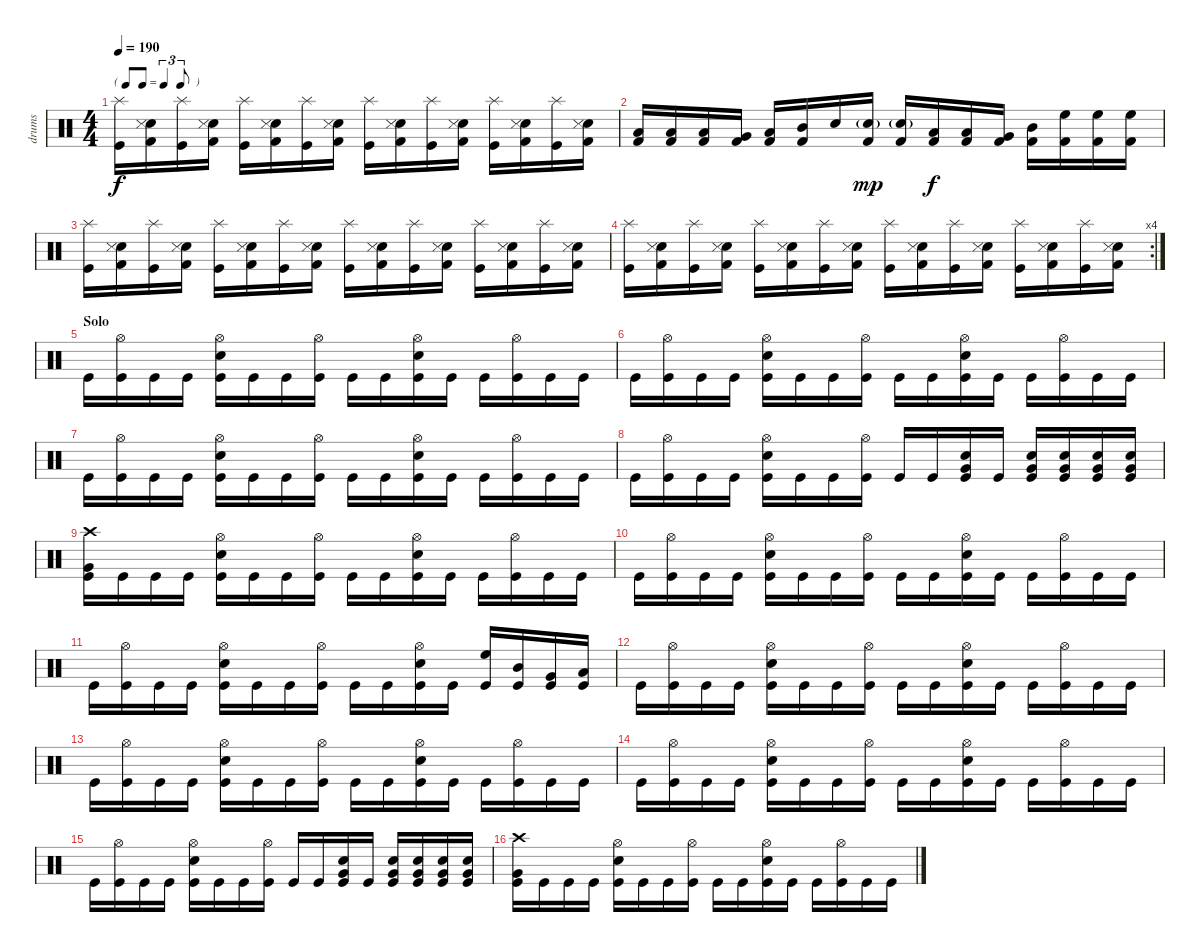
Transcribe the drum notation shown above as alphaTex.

\track ("drums" "drums") {instrument percussion}
\staff {score}
\articulation defaults
\ts (4 4)
\tf triplet8th
\tempo 190
\clef neutral
\ks c
("Kick (hit)" "Splash (hit)").16{dy f} ("Kick (hit) 2" "Electric Snare (hit)" "Snare (side stick) 3").16 ("Kick (hit)" "Splash (hit)").16 ("Kick (hit) 2" "Electric Snare (hit)" "Snare (side stick) 3").16 ("Kick (hit)" "Splash (hit)").16 ("Kick (hit) 2" "Electric Snare (hit)" "Snare (side stick) 3").16 ("Kick (hit)" "Splash (hit)").16 ("Kick (hit) 2" "Electric Snare (hit)" "Snare (side stick) 3").16 ("Kick (hit)" "Splash (hit)").16 ("Kick (hit) 2" "Electric Snare (hit)" "Snare (side stick) 3").16 ("Kick (hit)" "Splash (hit)").16 ("Kick (hit) 2" "Electric Snare (hit)" "Snare (side stick) 3").16 ("Kick (hit)" "Splash (hit)").16 ("Kick (hit) 2" "Electric Snare (hit)" "Snare (side stick) 3").16 ("Kick (hit)" "Splash (hit)").16 ("Kick (hit) 2" "Electric Snare (hit)" "Snare (side stick) 3").16 |
("Low Floor Tom (hit)" "Kick (hit) 2").16 ("Low Floor Tom (hit)" "Kick (hit) 2").16 ("Low Floor Tom (hit)" "Kick (hit) 2").16 ("Very Low Tom (hit)" "Kick (hit) 2").16 ("Low Tom (hit)" "Kick (hit) 2").16 ("Mid Tom (hit)" "Kick (hit) 2").16 "Electric Snare (hit)".16 ("Snare (hit) 2"{g} "Kick (hit) 2").16{dy mp} ("Snare (hit) 2"{g} "Kick (hit) 2").16 ("Low Floor Tom (hit)" "Kick (hit) 2").16{dy f} ("Low Tom (hit)" "Kick (hit) 2").16 ("Very Low Tom (hit)" "Kick (hit) 2").16 ("Mid Tom (hit)" "Kick (hit) 2").16 ("High Floor Tom (hit)" "Kick (hit) 2").16 ("High Floor Tom (hit)" "Kick (hit) 2").16 ("High Floor Tom (hit)" "Kick (hit) 2").16 |
("Kick (hit)" "Splash (hit)").16 ("Kick (hit) 2" "Electric Snare (hit)" "Snare (side stick) 3").16 ("Kick (hit)" "Splash (hit)").16 ("Kick (hit) 2" "Electric Snare (hit)" "Snare (side stick) 3").16 ("Kick (hit)" "Splash (hit)").16 ("Kick (hit) 2" "Electric Snare (hit)" "Snare (side stick) 3").16 ("Kick (hit)" "Splash (hit)").16 ("Kick (hit) 2" "Electric Snare (hit)" "Snare (side stick) 3").16 ("Kick (hit)" "Splash (hit)").16 ("Kick (hit) 2" "Electric Snare (hit)" "Snare (side stick) 3").16 ("Kick (hit)" "Splash (hit)").16 ("Kick (hit) 2" "Electric Snare (hit)" "Snare (side stick) 3").16 ("Kick (hit)" "Splash (hit)").16 ("Kick (hit) 2" "Electric Snare (hit)" "Snare (side stick) 3").16 ("Kick (hit)" "Splash (hit)").16 ("Kick (hit) 2" "Electric Snare (hit)" "Snare (side stick) 3").16 |
\rc 4
("Kick (hit)" "Splash (hit)").16 ("Kick (hit) 2" "Electric Snare (hit)" "Snare (side stick) 3").16 ("Kick (hit)" "Splash (hit)").16 ("Kick (hit) 2" "Electric Snare (hit)" "Snare (side stick) 3").16 ("Kick (hit)" "Splash (hit)").16 ("Kick (hit) 2" "Electric Snare (hit)" "Snare (side stick) 3").16 ("Kick (hit)" "Splash (hit)").16 ("Kick (hit) 2" "Electric Snare (hit)" "Snare (side stick) 3").16 ("Kick (hit)" "Splash (hit)").16 ("Kick (hit) 2" "Electric Snare (hit)" "Snare (side stick) 3").16 ("Kick (hit)" "Splash (hit)").16 ("Kick (hit) 2" "Electric Snare (hit)" "Snare (side stick) 3").16 ("Kick (hit)" "Splash (hit)").16 ("Kick (hit) 2" "Electric Snare (hit)" "Snare (side stick) 3").16 ("Kick (hit)" "Splash (hit)").16 ("Kick (hit) 2" "Electric Snare (hit)" "Snare (side stick) 3").16 |
\section ("" "Solo")
"Kick (hit)".16 ("Kick (hit)" "Hi-Hat (open)").16 "Kick (hit)".16 "Kick (hit)".16 ("Kick (hit)" "Electric Snare (hit)" "Hi-Hat (open)").16 "Kick (hit)".16 "Kick (hit)".16 ("Kick (hit)" "Hi-Hat (open)").16 "Kick (hit)".16 "Kick (hit)".16 ("Kick (hit)" "Electric Snare (hit)" "Hi-Hat (open)").16 "Kick (hit)".16 "Kick (hit)".16 ("Kick (hit)" "Hi-Hat (open)").16 "Kick (hit)".16 "Kick (hit)".16 |
"Kick (hit)".16 ("Kick (hit)" "Hi-Hat (open)").16 "Kick (hit)".16 "Kick (hit)".16 ("Kick (hit)" "Electric Snare (hit)" "Hi-Hat (open)").16 "Kick (hit)".16 "Kick (hit)".16 ("Kick (hit)" "Hi-Hat (open)").16 "Kick (hit)".16 "Kick (hit)".16 ("Kick (hit)" "Electric Snare (hit)" "Hi-Hat (open)").16 "Kick (hit)".16 "Kick (hit)".16 ("Kick (hit)" "Hi-Hat (open)").16 "Kick (hit)".16 "Kick (hit)".16 |
"Kick (hit)".16 ("Kick (hit)" "Hi-Hat (open)").16 "Kick (hit)".16 "Kick (hit)".16 ("Kick (hit)" "Electric Snare (hit)" "Hi-Hat (open)").16 "Kick (hit)".16 "Kick (hit)".16 ("Kick (hit)" "Hi-Hat (open)").16 "Kick (hit)".16 "Kick (hit)".16 ("Kick (hit)" "Electric Snare (hit)" "Hi-Hat (open)").16 "Kick (hit)".16 "Kick (hit)".16 ("Kick (hit)" "Hi-Hat (open)").16 "Kick (hit)".16 "Kick (hit)".16 |
"Kick (hit)".16 ("Kick (hit)" "Hi-Hat (open)").16 "Kick (hit)".16 "Kick (hit)".16 ("Kick (hit)" "Electric Snare (hit)" "Hi-Hat (open)").16 "Kick (hit)".16 "Kick (hit)".16 ("Kick (hit)" "Hi-Hat (open)").16 "Kick (hit)".16 "Kick (hit)".16 ("Kick (hit)" "Electric Snare (hit)" "Very Low Tom (hit)").16 "Kick (hit)".16 ("Kick (hit)" "Electric Snare (hit)" "Very Low Tom (hit)").16 ("Kick (hit)" "Electric Snare (hit)" "Very Low Tom (hit)").16 ("Kick (hit)" "Electric Snare (hit)" "Very Low Tom (hit)").16 ("Kick (hit)" "Electric Snare (hit)" "Very Low Tom (hit)").16 |
("Kick (hit)" "Very Low Tom (hit)" "Crash high (hit)").16 "Kick (hit)".16 "Kick (hit)".16 "Kick (hit)".16 ("Kick (hit)" "Electric Snare (hit)" "Hi-Hat (open)").16 "Kick (hit)".16 "Kick (hit)".16 ("Kick (hit)" "Hi-Hat (open)").16 "Kick (hit)".16 "Kick (hit)".16 ("Kick (hit)" "Electric Snare (hit)" "Hi-Hat (open)").16 "Kick (hit)".16 "Kick (hit)".16 ("Kick (hit)" "Hi-Hat (open)").16 "Kick (hit)".16 "Kick (hit)".16 |
"Kick (hit)".16 ("Kick (hit)" "Hi-Hat (open)").16 "Kick (hit)".16 "Kick (hit)".16 ("Kick (hit)" "Electric Snare (hit)" "Hi-Hat (open)").16 "Kick (hit)".16 "Kick (hit)".16 ("Kick (hit)" "Hi-Hat (open)").16 "Kick (hit)".16 "Kick (hit)".16 ("Kick (hit)" "Electric Snare (hit)" "Hi-Hat (open)").16 "Kick (hit)".16 "Kick (hit)".16 ("Kick (hit)" "Hi-Hat (open)").16 "Kick (hit)".16 "Kick (hit)".16 |
"Kick (hit)".16 ("Kick (hit)" "Hi-Hat (open)").16 "Kick (hit)".16 "Kick (hit)".16 ("Kick (hit)" "Electric Snare (hit)" "Hi-Hat (open)").16 "Kick (hit)".16 "Kick (hit)".16 ("Kick (hit)" "Hi-Hat (open)").16 "Kick (hit)".16 "Kick (hit)".16 ("Kick (hit)" "Electric Snare (hit)" "Hi-Hat (open)").16 "Kick (hit)".16 ("Kick (hit)" "High Floor Tom (hit)").16 ("Kick (hit)" "Mid Tom (hit)").16 ("Kick (hit)" "Very Low Tom (hit)").16 ("Kick (hit)" "Low Floor Tom (hit)").16 |
"Kick (hit)".16 ("Kick (hit)" "Hi-Hat (open)").16 "Kick (hit)".16 "Kick (hit)".16 ("Kick (hit)" "Electric Snare (hit)" "Hi-Hat (open)").16 "Kick (hit)".16 "Kick (hit)".16 ("Kick (hit)" "Hi-Hat (open)").16 "Kick (hit)".16 "Kick (hit)".16 ("Kick (hit)" "Electric Snare (hit)" "Hi-Hat (open)").16 "Kick (hit)".16 "Kick (hit)".16 ("Kick (hit)" "Hi-Hat (open)").16 "Kick (hit)".16 "Kick (hit)".16 |
"Kick (hit)".16 ("Kick (hit)" "Hi-Hat (open)").16 "Kick (hit)".16 "Kick (hit)".16 ("Kick (hit)" "Electric Snare (hit)" "Hi-Hat (open)").16 "Kick (hit)".16 "Kick (hit)".16 ("Kick (hit)" "Hi-Hat (open)").16 "Kick (hit)".16 "Kick (hit)".16 ("Kick (hit)" "Electric Snare (hit)" "Hi-Hat (open)").16 "Kick (hit)".16 "Kick (hit)".16 ("Kick (hit)" "Hi-Hat (open)").16 "Kick (hit)".16 "Kick (hit)".16 |
"Kick (hit)".16 ("Kick (hit)" "Hi-Hat (open)").16 "Kick (hit)".16 "Kick (hit)".16 ("Kick (hit)" "Electric Snare (hit)" "Hi-Hat (open)").16 "Kick (hit)".16 "Kick (hit)".16 ("Kick (hit)" "Hi-Hat (open)").16 "Kick (hit)".16 "Kick (hit)".16 ("Kick (hit)" "Electric Snare (hit)" "Hi-Hat (open)").16 "Kick (hit)".16 "Kick (hit)".16 ("Kick (hit)" "Hi-Hat (open)").16 "Kick (hit)".16 "Kick (hit)".16 |
"Kick (hit)".16 ("Kick (hit)" "Hi-Hat (open)").16 "Kick (hit)".16 "Kick (hit)".16 ("Kick (hit)" "Electric Snare (hit)" "Hi-Hat (open)").16 "Kick (hit)".16 "Kick (hit)".16 ("Kick (hit)" "Hi-Hat (open)").16 "Kick (hit)".16 "Kick (hit)".16 ("Kick (hit)" "Electric Snare (hit)" "Very Low Tom (hit)").16 "Kick (hit)".16 ("Kick (hit)" "Electric Snare (hit)" "Very Low Tom (hit)").16 ("Kick (hit)" "Electric Snare (hit)" "Very Low Tom (hit)").16 ("Kick (hit)" "Electric Snare (hit)" "Very Low Tom (hit)").16 ("Kick (hit)" "Electric Snare (hit)" "Very Low Tom (hit)").16 |
("Kick (hit)" "Very Low Tom (hit)" "Crash high (hit)").16 "Kick (hit)".16 "Kick (hit)".16 "Kick (hit)".16 ("Kick (hit)" "Electric Snare (hit)" "Hi-Hat (open)").16 "Kick (hit)".16 "Kick (hit)".16 ("Kick (hit)" "Hi-Hat (open)").16 "Kick (hit)".16 "Kick (hit)".16 ("Kick (hit)" "Electric Snare (hit)" "Hi-Hat (open)").16 "Kick (hit)".16 "Kick (hit)".16 ("Kick (hit)" "Hi-Hat (open)").16 "Kick (hit)".16 "Kick (hit)".16
